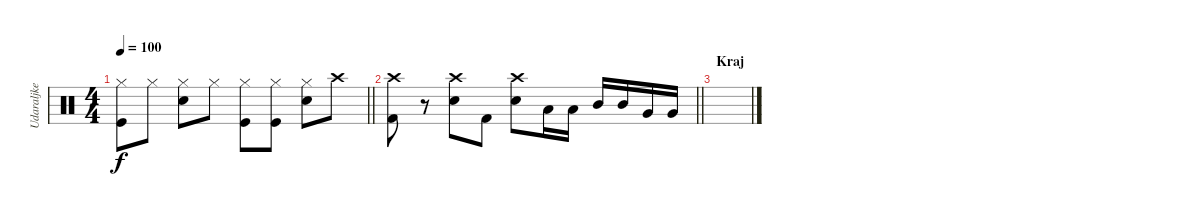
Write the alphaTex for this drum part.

\track ("Udaraljke" "Udaraljke") {instrument percussion}
\staff {score}
\articulation defaults
\ts (4 4)
\tempo 100
\clef neutral
\barLineRight lightlight
\ks c
("Hi-Hat (closed)" "Kick (hit)").8{dy f} "Hi-Hat (closed)".8 ("Hi-Hat (closed)" "Snare (hit) 2").8 "Hi-Hat (closed)".8 ("Hi-Hat (closed)" "Kick (hit)").8 ("Hi-Hat (closed)" "Kick (hit)").8 ("Hi-Hat (closed)" "Snare (hit) 2").8 "Crash high (hit)".8 |
\barLineRight lightlight
("Crash high (hit)" "Kick (hit) 2").8 r.8 ("Crash high (hit)" "Electric Snare (hit)").8 "Kick (hit) 2".8 ("Crash high (hit)" "Electric Snare (hit)").8 "Low Tom (hit)".16 "Low Tom (hit)".16 "Mid Tom (hit)".16 "Mid Tom (hit)".16 "Very Low Tom (hit)".16 "Very Low Tom (hit)".16 |
\section ("" "Kraj")
